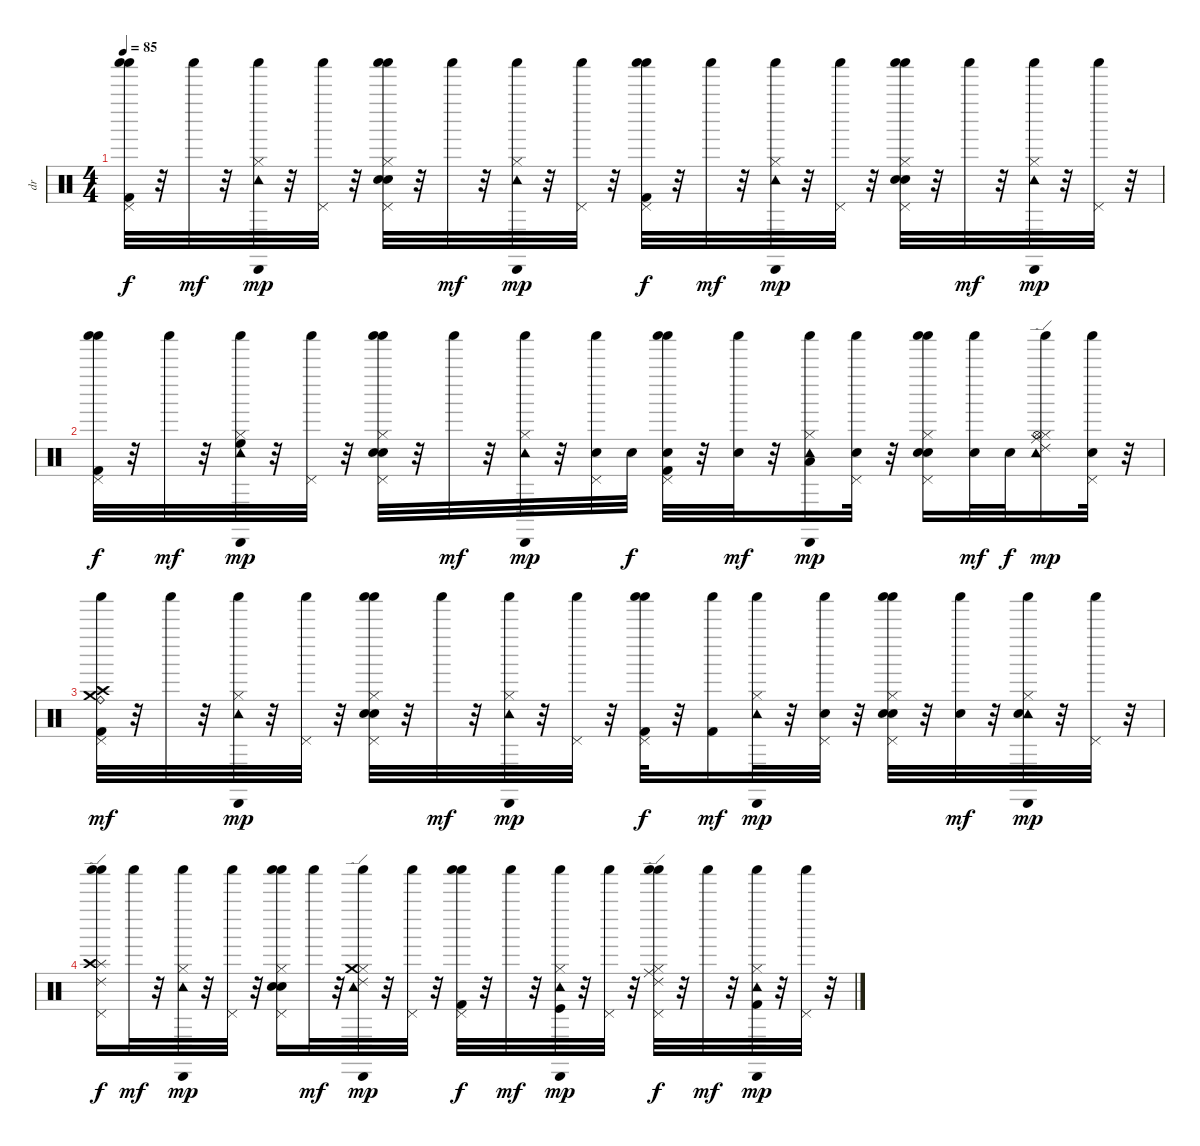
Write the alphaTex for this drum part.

\track ("dr" "dr") {instrument percussion}
\staff {score}
\articulation defaults
\ts (4 4)
\tempo 85
\clef neutral
\ks c
("Pedal Hi-Hat (hit)" "Shaker (hit)" "Shaker (hit)" "Kick (hit) 2").32{dy f} r.32 "Shaker (hit)".32{dy mf} r.32 ("Hi-Hat (closed)" "Cabasa (hit)" "Tambourine (hit)" "Shaker (hit)").32{dy mp} r.32 ("Pedal Hi-Hat (hit)" "Shaker (hit)").32 r.32 ("Electric Snare (hit)" "Pedal Hi-Hat (hit)" "Shaker (hit)" "Shaker (hit)" "Hi-Hat (closed)" "Snare (hit) 2").32 r.32 "Shaker (hit)".32{dy mf} r.32 ("Hi-Hat (closed)" "Tambourine (hit)" "Cabasa (hit)" "Shaker (hit)").32{dy mp} r.32 ("Pedal Hi-Hat (hit)" "Shaker (hit)").32 r.32 ("Pedal Hi-Hat (hit)" "Shaker (hit)" "Shaker (hit)" "Kick (hit) 2").32{dy f} r.32 "Shaker (hit)".32{dy mf} r.32 ("Hi-Hat (closed)" "Cabasa (hit)" "Tambourine (hit)" "Shaker (hit)").32{dy mp} r.32 ("Pedal Hi-Hat (hit)" "Shaker (hit)").32 r.32 ("Electric Snare (hit)" "Pedal Hi-Hat (hit)" "Shaker (hit)" "Shaker (hit)" "Hi-Hat (closed)" "Snare (hit) 2").32 r.32 "Shaker (hit)".32{dy mf} r.32 ("Hi-Hat (closed)" "Cabasa (hit)" "Tambourine (hit)" "Shaker (hit)").32{dy mp} r.32 ("Pedal Hi-Hat (hit)" "Shaker (hit)").32 r.32 |
("Pedal Hi-Hat (hit)" "Shaker (hit)" "Shaker (hit)" "Kick (hit) 2").32{dy f} r.32 "Shaker (hit)".32{dy mf} r.32 ("Hi-Hat (closed)" "Cabasa (hit)" "Tambourine (hit)" "Shaker (hit)" "High Floor Tom (hit)").32{dy mp} r.32 ("Pedal Hi-Hat (hit)" "Shaker (hit)").32 r.32 ("Electric Snare (hit)" "Pedal Hi-Hat (hit)" "Shaker (hit)" "Shaker (hit)" "Hi-Hat (closed)" "Snare (hit) 2").32 r.32 "Shaker (hit)".32{dy mf} r.32 ("Hi-Hat (closed)" "Cabasa (hit)" "Tambourine (hit)" "Shaker (hit)").32{dy mp} r.32 ("Pedal Hi-Hat (hit)" "Shaker (hit)" "Snare (hit) 2").32 "Snare (hit) 2".32{dy f} ("Pedal Hi-Hat (hit)" "Shaker (hit)" "Shaker (hit)" "Kick (hit) 2" "Snare (hit) 2").32 r.32 ("Shaker (hit)" "Snare (hit) 2").32{dy mf} r.32 ("Cabasa (hit)" "Tambourine (hit)" "Shaker (hit)" "Hi-Hat (closed)" "Low Tom (hit)").16{dy mp} ("Pedal Hi-Hat (hit)" "Shaker (hit)" "Snare (hit) 2").32 r.32 ("Electric Snare (hit)" "Pedal Hi-Hat (hit)" "Shaker (hit)" "Shaker (hit)" "Hi-Hat (closed)" "Snare (hit) 2").16 ("Shaker (hit)" "Snare (hit) 2").32{dy mf} "Snare (hit) 2".32{dy f} ("Hi-Hat (closed)" "Tambourine (hit)" "Shaker (hit)" "Ride (middle)" "Hi-Hat (open)" "Ride (edge) 2").16{dy mp} ("Pedal Hi-Hat (hit)" "Shaker (hit)" "Snare (hit) 2").32 r.32 |
("Kick (hit) 2" "Crash high (hit)" "Ride (bell)" "Crash medium (hit)" "Pedal Hi-Hat (hit)" "Shaker (hit)").32{dy mf} r.32 "Shaker (hit)".32 r.32 ("Hi-Hat (closed)" "Cabasa (hit)" "Tambourine (hit)" "Shaker (hit)").32{dy mp} r.32 ("Pedal Hi-Hat (hit)" "Shaker (hit)").32 r.32 ("Electric Snare (hit)" "Pedal Hi-Hat (hit)" "Shaker (hit)" "Shaker (hit)" "Hi-Hat (closed)" "Snare (hit) 2").32 r.32 "Shaker (hit)".32{dy mf} r.32 ("Hi-Hat (closed)" "Cabasa (hit)" "Tambourine (hit)" "Shaker (hit)").32{dy mp} r.32 ("Pedal Hi-Hat (hit)" "Shaker (hit)").32 r.32 ("Pedal Hi-Hat (hit)" "Shaker (hit)" "Shaker (hit)" "Kick (hit) 2").32{dy f} r.32 ("Shaker (hit)" "Kick (hit) 2").16{dy mf} ("Cabasa (hit)" "Tambourine (hit)" "Shaker (hit)" "Hi-Hat (closed)").32{dy mp} r.32 ("Pedal Hi-Hat (hit)" "Shaker (hit)" "Snare (hit) 2").32 r.32 ("Shaker (hit)" "Shaker (hit)" "Pedal Hi-Hat (hit)" "Hi-Hat (closed)" "Electric Snare (hit)" "Snare (hit) 2").32 r.32 ("Shaker (hit)" "Snare (hit) 2").32{dy mf} r.32 ("Hi-Hat (closed)" "Cabasa (hit)" "Tambourine (hit)" "Shaker (hit)" "Snare (hit) 2").32{dy mp} r.32 ("Pedal Hi-Hat (hit)" "Shaker (hit)").32 r.32 |
("Pedal Hi-Hat (hit)" "Shaker (hit)" "Shaker (hit)" "Ride (edge) 2" "Splash (hit)" "Crash high (hit)").16{dy f} "Shaker (hit)".32{dy mf} r.32 ("Hi-Hat (closed)" "Cabasa (hit)" "Tambourine (hit)" "Shaker (hit)").32{dy mp} r.32 ("Pedal Hi-Hat (hit)" "Shaker (hit)").32 r.32 ("Electric Snare (hit)" "Pedal Hi-Hat (hit)" "Shaker (hit)" "Shaker (hit)" "Hi-Hat (closed)" "Snare (hit) 2").16 "Shaker (hit)".32{dy mf} r.32 ("Hi-Hat (closed)" "Cabasa (hit)" "Tambourine (hit)" "Shaker (hit)" "Crash medium (hit)" "Ride (edge) 2").32{dy mp} r.32 ("Pedal Hi-Hat (hit)" "Shaker (hit)").32 r.32 ("Pedal Hi-Hat (hit)" "Shaker (hit)" "Shaker (hit)" "Kick (hit) 2").32{dy f} r.32 "Shaker (hit)".32{dy mf} r.32 ("Hi-Hat (closed)" "Cabasa (hit)" "Tambourine (hit)" "Shaker (hit)" "Kick (hit)").32{dy mp} r.32 ("Pedal Hi-Hat (hit)" "Shaker (hit)").32 r.32 ("Pedal Hi-Hat (hit)" "Shaker (hit)" "Shaker (hit)" "Hi-Hat (closed)" "Ride (middle)" "Ride (edge) 2").32{dy f} r.32 "Shaker (hit)".32{dy mf} r.32 ("Cabasa (hit)" "Tambourine (hit)" "Shaker (hit)" "Hi-Hat (closed)" "Kick (hit) 2").32{dy mp} r.32 ("Pedal Hi-Hat (hit)" "Shaker (hit)").32 r.32
